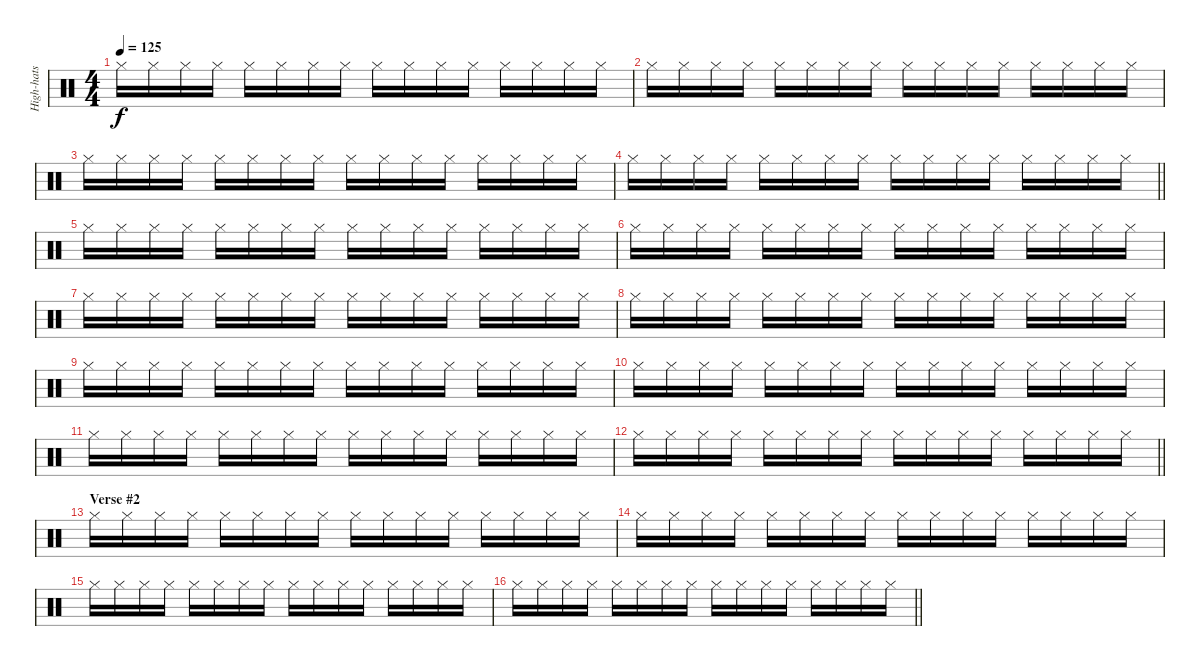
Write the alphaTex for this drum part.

\track ("High-hats" "High-hats") {instrument percussion}
\staff {score}
\articulation defaults
\ts (4 4)
\tempo 125
\clef neutral
\ks c "Hi-Hat (closed)".16{dy f} "Hi-Hat (closed)".16 "Hi-Hat (closed)".16 "Hi-Hat (closed)".16 "Hi-Hat (closed)".16 "Hi-Hat (closed)".16 "Hi-Hat (closed)".16 "Hi-Hat (closed)".16 "Hi-Hat (closed)".16 "Hi-Hat (closed)".16 "Hi-Hat (closed)".16 "Hi-Hat (closed)".16 "Hi-Hat (closed)".16 "Hi-Hat (closed)".16 "Hi-Hat (closed)".16 "Hi-Hat (closed)".16
|
"Hi-Hat (closed)".16 "Hi-Hat (closed)".16 "Hi-Hat (closed)".16 "Hi-Hat (closed)".16 "Hi-Hat (closed)".16 "Hi-Hat (closed)".16 "Hi-Hat (closed)".16 "Hi-Hat (closed)".16 "Hi-Hat (closed)".16 "Hi-Hat (closed)".16 "Hi-Hat (closed)".16 "Hi-Hat (closed)".16 "Hi-Hat (closed)".16 "Hi-Hat (closed)".16 "Hi-Hat (closed)".16 "Hi-Hat (closed)".16 |
"Hi-Hat (closed)".16 "Hi-Hat (closed)".16 "Hi-Hat (closed)".16 "Hi-Hat (closed)".16 "Hi-Hat (closed)".16 "Hi-Hat (closed)".16 "Hi-Hat (closed)".16 "Hi-Hat (closed)".16 "Hi-Hat (closed)".16 "Hi-Hat (closed)".16 "Hi-Hat (closed)".16 "Hi-Hat (closed)".16 "Hi-Hat (closed)".16 "Hi-Hat (closed)".16 "Hi-Hat (closed)".16 "Hi-Hat (closed)".16 |
\barLineRight lightlight "Hi-Hat (closed)".16 "Hi-Hat (closed)".16 "Hi-Hat (closed)".16 "Hi-Hat (closed)".16 "Hi-Hat (closed)".16 "Hi-Hat (closed)".16 "Hi-Hat (closed)".16 "Hi-Hat (closed)".16 "Hi-Hat (closed)".16 "Hi-Hat (closed)".16 "Hi-Hat (closed)".16 "Hi-Hat (closed)".16 "Hi-Hat (closed)".16 "Hi-Hat (closed)".16 "Hi-Hat (closed)".16 "Hi-Hat (closed)".16
|
"Hi-Hat (closed)".16 "Hi-Hat (closed)".16 "Hi-Hat (closed)".16 "Hi-Hat (closed)".16 "Hi-Hat (closed)".16 "Hi-Hat (closed)".16 "Hi-Hat (closed)".16 "Hi-Hat (closed)".16 "Hi-Hat (closed)".16 "Hi-Hat (closed)".16 "Hi-Hat (closed)".16 "Hi-Hat (closed)".16 "Hi-Hat (closed)".16 "Hi-Hat (closed)".16 "Hi-Hat (closed)".16 "Hi-Hat (closed)".16 |
"Hi-Hat (closed)".16 "Hi-Hat (closed)".16 "Hi-Hat (closed)".16 "Hi-Hat (closed)".16 "Hi-Hat (closed)".16 "Hi-Hat (closed)".16 "Hi-Hat (closed)".16 "Hi-Hat (closed)".16 "Hi-Hat (closed)".16 "Hi-Hat (closed)".16 "Hi-Hat (closed)".16 "Hi-Hat (closed)".16 "Hi-Hat (closed)".16 "Hi-Hat (closed)".16 "Hi-Hat (closed)".16 "Hi-Hat (closed)".16 |
"Hi-Hat (closed)".16 "Hi-Hat (closed)".16 "Hi-Hat (closed)".16 "Hi-Hat (closed)".16 "Hi-Hat (closed)".16 "Hi-Hat (closed)".16 "Hi-Hat (closed)".16 "Hi-Hat (closed)".16 "Hi-Hat (closed)".16 "Hi-Hat (closed)".16 "Hi-Hat (closed)".16 "Hi-Hat (closed)".16 "Hi-Hat (closed)".16 "Hi-Hat (closed)".16 "Hi-Hat (closed)".16 "Hi-Hat (closed)".16 |
"Hi-Hat (closed)".16 "Hi-Hat (closed)".16 "Hi-Hat (closed)".16 "Hi-Hat (closed)".16 "Hi-Hat (closed)".16 "Hi-Hat (closed)".16 "Hi-Hat (closed)".16 "Hi-Hat (closed)".16 "Hi-Hat (closed)".16 "Hi-Hat (closed)".16 "Hi-Hat (closed)".16 "Hi-Hat (closed)".16 "Hi-Hat (closed)".16 "Hi-Hat (closed)".16 "Hi-Hat (closed)".16 "Hi-Hat (closed)".16 |
"Hi-Hat (closed)".16 "Hi-Hat (closed)".16 "Hi-Hat (closed)".16 "Hi-Hat (closed)".16 "Hi-Hat (closed)".16 "Hi-Hat (closed)".16 "Hi-Hat (closed)".16 "Hi-Hat (closed)".16 "Hi-Hat (closed)".16 "Hi-Hat (closed)".16 "Hi-Hat (closed)".16 "Hi-Hat (closed)".16 "Hi-Hat (closed)".16 "Hi-Hat (closed)".16 "Hi-Hat (closed)".16 "Hi-Hat (closed)".16 |
"Hi-Hat (closed)".16 "Hi-Hat (closed)".16 "Hi-Hat (closed)".16 "Hi-Hat (closed)".16 "Hi-Hat (closed)".16 "Hi-Hat (closed)".16 "Hi-Hat (closed)".16 "Hi-Hat (closed)".16 "Hi-Hat (closed)".16 "Hi-Hat (closed)".16 "Hi-Hat (closed)".16 "Hi-Hat (closed)".16 "Hi-Hat (closed)".16 "Hi-Hat (closed)".16 "Hi-Hat (closed)".16 "Hi-Hat (closed)".16 |
"Hi-Hat (closed)".16 "Hi-Hat (closed)".16 "Hi-Hat (closed)".16 "Hi-Hat (closed)".16 "Hi-Hat (closed)".16 "Hi-Hat (closed)".16 "Hi-Hat (closed)".16 "Hi-Hat (closed)".16 "Hi-Hat (closed)".16 "Hi-Hat (closed)".16 "Hi-Hat (closed)".16 "Hi-Hat (closed)".16 "Hi-Hat (closed)".16 "Hi-Hat (closed)".16 "Hi-Hat (closed)".16 "Hi-Hat (closed)".16 |
\barLineRight lightlight "Hi-Hat (closed)".16 "Hi-Hat (closed)".16 "Hi-Hat (closed)".16 "Hi-Hat (closed)".16 "Hi-Hat (closed)".16 "Hi-Hat (closed)".16 "Hi-Hat (closed)".16 "Hi-Hat (closed)".16 "Hi-Hat (closed)".16 "Hi-Hat (closed)".16 "Hi-Hat (closed)".16 "Hi-Hat (closed)".16 "Hi-Hat (closed)".16 "Hi-Hat (closed)".16 "Hi-Hat (closed)".16 "Hi-Hat (closed)".16
|
\section ("" "Verse #2")
"Hi-Hat (closed)".16 "Hi-Hat (closed)".16 "Hi-Hat (closed)".16 "Hi-Hat (closed)".16 "Hi-Hat (closed)".16 "Hi-Hat (closed)".16 "Hi-Hat (closed)".16 "Hi-Hat (closed)".16 "Hi-Hat (closed)".16 "Hi-Hat (closed)".16 "Hi-Hat (closed)".16 "Hi-Hat (closed)".16 "Hi-Hat (closed)".16 "Hi-Hat (closed)".16 "Hi-Hat (closed)".16 "Hi-Hat (closed)".16 |
"Hi-Hat (closed)".16 "Hi-Hat (closed)".16 "Hi-Hat (closed)".16 "Hi-Hat (closed)".16 "Hi-Hat (closed)".16 "Hi-Hat (closed)".16 "Hi-Hat (closed)".16 "Hi-Hat (closed)".16 "Hi-Hat (closed)".16 "Hi-Hat (closed)".16 "Hi-Hat (closed)".16 "Hi-Hat (closed)".16 "Hi-Hat (closed)".16 "Hi-Hat (closed)".16 "Hi-Hat (closed)".16 "Hi-Hat (closed)".16 |
"Hi-Hat (closed)".16 "Hi-Hat (closed)".16 "Hi-Hat (closed)".16 "Hi-Hat (closed)".16 "Hi-Hat (closed)".16 "Hi-Hat (closed)".16 "Hi-Hat (closed)".16 "Hi-Hat (closed)".16 "Hi-Hat (closed)".16 "Hi-Hat (closed)".16 "Hi-Hat (closed)".16 "Hi-Hat (closed)".16 "Hi-Hat (closed)".16 "Hi-Hat (closed)".16 "Hi-Hat (closed)".16 "Hi-Hat (closed)".16 |
\barLineRight lightlight "Hi-Hat (closed)".16 "Hi-Hat (closed)".16 "Hi-Hat (closed)".16 "Hi-Hat (closed)".16 "Hi-Hat (closed)".16 "Hi-Hat (closed)".16 "Hi-Hat (closed)".16 "Hi-Hat (closed)".16 "Hi-Hat (closed)".16 "Hi-Hat (closed)".16 "Hi-Hat (closed)".16 "Hi-Hat (closed)".16 "Hi-Hat (closed)".16 "Hi-Hat (closed)".16 "Hi-Hat (closed)".16 "Hi-Hat (closed)".16
